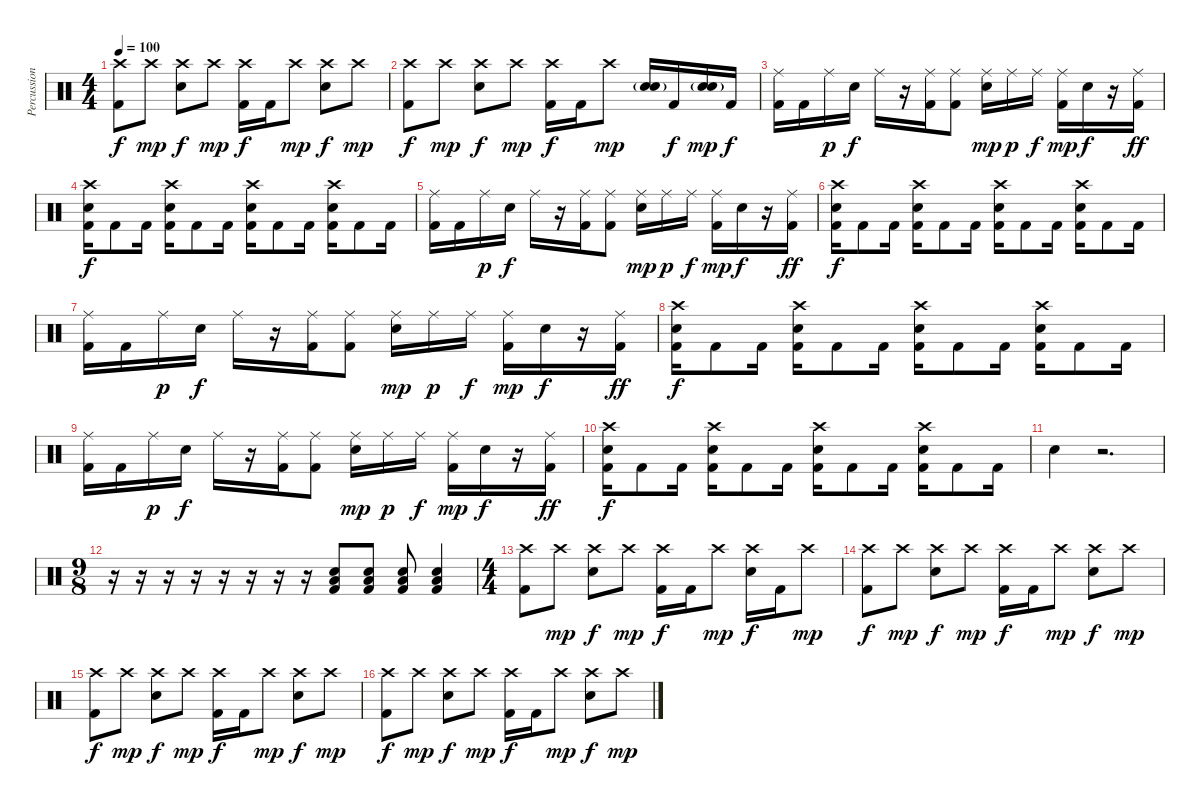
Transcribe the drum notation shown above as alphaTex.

\track ("Percussion" "Percussion") {instrument percussion}
\staff {score}
\articulation defaults
\ts (4 4)
\tempo 100
\clef neutral
\ks c
("Crash high (hit)" "Kick (hit) 2").8{dy f} "Crash high (hit)".8{dy mp} ("Crash high (hit)" "Electric Snare (hit)").8{dy f} "Crash high (hit)".8{dy mp} ("Crash high (hit)" "Kick (hit) 2").16{dy f} "Kick (hit) 2".16 "Crash high (hit)".8{dy mp} ("Crash high (hit)" "Electric Snare (hit)").8{dy f} "Crash high (hit)".8{dy mp} |
("Crash high (hit)" "Kick (hit) 2").8{dy f} "Crash high (hit)".8{dy mp} ("Crash high (hit)" "Electric Snare (hit)").8{dy f} "Crash high (hit)".8{dy mp} ("Crash high (hit)" "Kick (hit) 2").16{dy f} "Kick (hit) 2".16 "Crash high (hit)".8{dy mp} ("Electric Snare (hit)" "Electric Snare (hit)"{g}).16{bd 480} "Kick (hit) 2".16{dy f} ("Electric Snare (hit)" "Electric Snare (hit)"{g}).16{bd 480 dy mp} "Kick (hit) 2".16{dy f} |
("Ride (middle)" "Kick (hit) 2").16 "Kick (hit) 2".16 "Ride (middle)".16{dy p} "Electric Snare (hit)".16{dy f} "Ride (middle)".16 r.16 ("Ride (middle)" "Kick (hit) 2").16 ("Ride (middle)" "Kick (hit) 2").8 ("Ride (middle)" "Electric Snare (hit)").16{dy mp} "Ride (middle)".16{dy p} "Ride (middle)".16{dy f} ("Ride (middle)" "Kick (hit) 2").16{dy mp} "Electric Snare (hit)".16{dy f} r.16 ("Ride (middle)" "Kick (hit) 2").16{dy ff} |
("Crash high (hit)" "Electric Snare (hit)" "Kick (hit) 2").16{dy f} "Kick (hit) 2".8 "Kick (hit) 2".16 ("Crash high (hit)" "Electric Snare (hit)" "Kick (hit) 2").16 "Kick (hit) 2".8 "Kick (hit) 2".16 ("Crash high (hit)" "Electric Snare (hit)" "Kick (hit) 2").16 "Kick (hit) 2".8 "Kick (hit) 2".16 ("Crash high (hit)" "Electric Snare (hit)" "Kick (hit) 2").16 "Kick (hit) 2".8 "Kick (hit) 2".16 |
("Ride (middle)" "Kick (hit) 2").16 "Kick (hit) 2".16 "Ride (middle)".16{dy p} "Electric Snare (hit)".16{dy f} "Ride (middle)".16 r.16 ("Ride (middle)" "Kick (hit) 2").16 ("Ride (middle)" "Kick (hit) 2").8 ("Ride (middle)" "Electric Snare (hit)").16{dy mp} "Ride (middle)".16{dy p} "Ride (middle)".16{dy f} ("Ride (middle)" "Kick (hit) 2").16{dy mp} "Electric Snare (hit)".16{dy f} r.16 ("Ride (middle)" "Kick (hit) 2").16{dy ff} |
("Crash high (hit)" "Electric Snare (hit)" "Kick (hit) 2").16{dy f} "Kick (hit) 2".8 "Kick (hit) 2".16 ("Crash high (hit)" "Electric Snare (hit)" "Kick (hit) 2").16 "Kick (hit) 2".8 "Kick (hit) 2".16 ("Crash high (hit)" "Electric Snare (hit)" "Kick (hit) 2").16 "Kick (hit) 2".8 "Kick (hit) 2".16 ("Crash high (hit)" "Electric Snare (hit)" "Kick (hit) 2").16 "Kick (hit) 2".8 "Kick (hit) 2".16 |
("Ride (middle)" "Kick (hit) 2").16 "Kick (hit) 2".16 "Ride (middle)".16{dy p} "Electric Snare (hit)".16{dy f} "Ride (middle)".16 r.16 ("Ride (middle)" "Kick (hit) 2").16 ("Ride (middle)" "Kick (hit) 2").8 ("Ride (middle)" "Electric Snare (hit)").16{dy mp} "Ride (middle)".16{dy p} "Ride (middle)".16{dy f} ("Ride (middle)" "Kick (hit) 2").16{dy mp} "Electric Snare (hit)".16{dy f} r.16 ("Ride (middle)" "Kick (hit) 2").16{dy ff} |
("Crash high (hit)" "Electric Snare (hit)" "Kick (hit) 2").16{dy f} "Kick (hit) 2".8 "Kick (hit) 2".16 ("Crash high (hit)" "Electric Snare (hit)" "Kick (hit) 2").16 "Kick (hit) 2".8 "Kick (hit) 2".16 ("Crash high (hit)" "Electric Snare (hit)" "Kick (hit) 2").16 "Kick (hit) 2".8 "Kick (hit) 2".16 ("Crash high (hit)" "Electric Snare (hit)" "Kick (hit) 2").16 "Kick (hit) 2".8 "Kick (hit) 2".16 |
("Ride (middle)" "Kick (hit) 2").16 "Kick (hit) 2".16 "Ride (middle)".16{dy p} "Electric Snare (hit)".16{dy f} "Ride (middle)".16 r.16 ("Ride (middle)" "Kick (hit) 2").16 ("Ride (middle)" "Kick (hit) 2").8 ("Ride (middle)" "Electric Snare (hit)").16{dy mp} "Ride (middle)".16{dy p} "Ride (middle)".16{dy f} ("Ride (middle)" "Kick (hit) 2").16{dy mp} "Electric Snare (hit)".16{dy f} r.16 ("Ride (middle)" "Kick (hit) 2").16{dy ff} |
("Crash high (hit)" "Electric Snare (hit)" "Kick (hit) 2").16{dy f} "Kick (hit) 2".8 "Kick (hit) 2".16 ("Crash high (hit)" "Electric Snare (hit)" "Kick (hit) 2").16 "Kick (hit) 2".8 "Kick (hit) 2".16 ("Crash high (hit)" "Electric Snare (hit)" "Kick (hit) 2").16 "Kick (hit) 2".8 "Kick (hit) 2".16 ("Crash high (hit)" "Electric Snare (hit)" "Kick (hit) 2").16 "Kick (hit) 2".8 "Kick (hit) 2".16 |
"Electric Snare (hit)".4 r.2{d} |
\ts (9 8)
r.16 r.16 r.16 r.16 r.16 r.16 r.16 r.16 ("Electric Snare (hit)" "Low Floor Tom (hit)" "Kick (hit) 2").8 ("Electric Snare (hit)" "Low Floor Tom (hit)" "Kick (hit) 2").8 ("Electric Snare (hit)" "Low Floor Tom (hit)" "Kick (hit) 2").8 ("Electric Snare (hit)" "Low Floor Tom (hit)" "Kick (hit) 2").4 |
\ts (4 4)
("Crash high (hit)" "Kick (hit) 2").8 "Crash high (hit)".8{dy mp} ("Crash high (hit)" "Electric Snare (hit)").8{dy f} "Crash high (hit)".8{dy mp} ("Crash high (hit)" "Kick (hit) 2").16{dy f} "Kick (hit) 2".16 "Crash high (hit)".8{dy mp} ("Crash high (hit)" "Electric Snare (hit)").16{dy f} "Kick (hit) 2".16 "Crash high (hit)".8{dy mp} |
("Crash high (hit)" "Kick (hit) 2").8{dy f} "Crash high (hit)".8{dy mp} ("Crash high (hit)" "Electric Snare (hit)").8{dy f} "Crash high (hit)".8{dy mp} ("Crash high (hit)" "Kick (hit) 2").16{dy f} "Kick (hit) 2".16 "Crash high (hit)".8{dy mp} ("Crash high (hit)" "Electric Snare (hit)").8{dy f} "Crash high (hit)".8{dy mp} |
("Crash high (hit)" "Kick (hit) 2").8{dy f} "Crash high (hit)".8{dy mp} ("Crash high (hit)" "Electric Snare (hit)").8{dy f} "Crash high (hit)".8{dy mp} ("Crash high (hit)" "Kick (hit) 2").16{dy f} "Kick (hit) 2".16 "Crash high (hit)".8{dy mp} ("Crash high (hit)" "Electric Snare (hit)").8{dy f} "Crash high (hit)".8{dy mp} |
("Crash high (hit)" "Kick (hit) 2").8{dy f} "Crash high (hit)".8{dy mp} ("Crash high (hit)" "Electric Snare (hit)").8{dy f} "Crash high (hit)".8{dy mp} ("Crash high (hit)" "Kick (hit) 2").16{dy f} "Kick (hit) 2".16 "Crash high (hit)".8{dy mp} ("Crash high (hit)" "Electric Snare (hit)").8{dy f} "Crash high (hit)".8{dy mp}
